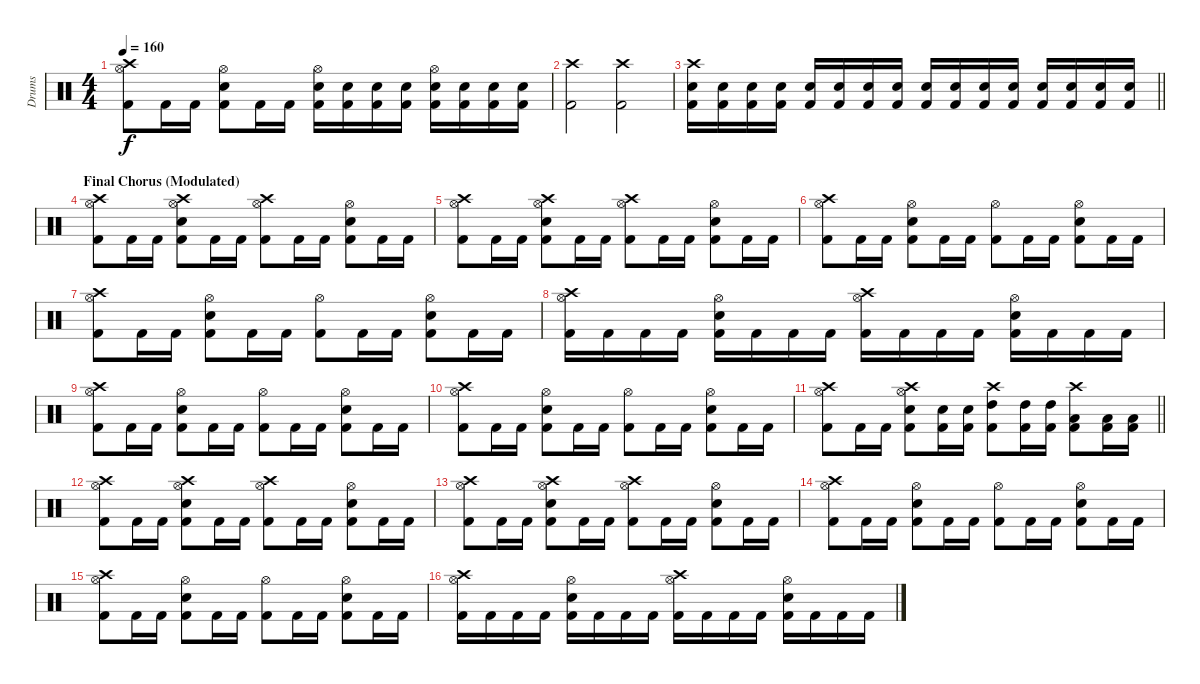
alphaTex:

\track ("Drums" "Drums") {instrument percussion}
\staff {score}
\articulation defaults
\ts (4 4)
\tempo 160
\clef neutral
\ks c
("Crash high (hit)" "Hi-Hat (open)" "Kick (hit) 2").8{dy f} "Kick (hit) 2".16 "Kick (hit) 2".16 ("Hi-Hat (open)" "Snare (hit) 2" "Kick (hit) 2").8 "Kick (hit) 2".16 "Kick (hit) 2".16 ("Hi-Hat (open)" "Snare (hit) 2" "Kick (hit) 2").16 ("Snare (hit) 2" "Kick (hit) 2").16 ("Snare (hit) 2" "Kick (hit) 2").16 ("Snare (hit) 2" "Kick (hit) 2").16 ("Hi-Hat (open)" "Snare (hit) 2" "Kick (hit) 2").16 ("Snare (hit) 2" "Kick (hit) 2").16 ("Snare (hit) 2" "Kick (hit) 2").16 ("Snare (hit) 2" "Kick (hit) 2").16 |
("Crash high (hit)" "Kick (hit) 2").2 ("Crash high (hit)" "Kick (hit) 2").2 |
\barLineRight lightlight
("Crash high (hit)" "Snare (hit) 2" "Kick (hit) 2").16 ("Snare (hit) 2" "Kick (hit) 2").16 ("Snare (hit) 2" "Kick (hit) 2").16 ("Snare (hit) 2" "Kick (hit) 2").16 ("Snare (hit) 2" "Kick (hit) 2").16 ("Snare (hit) 2" "Kick (hit) 2").16 ("Snare (hit) 2" "Kick (hit) 2").16 ("Snare (hit) 2" "Kick (hit) 2").16 ("Snare (hit) 2" "Kick (hit) 2").16 ("Snare (hit) 2" "Kick (hit) 2").16 ("Snare (hit) 2" "Kick (hit) 2").16 ("Snare (hit) 2" "Kick (hit) 2").16 ("Snare (hit) 2" "Kick (hit) 2").16 ("Snare (hit) 2" "Kick (hit) 2").16 ("Snare (hit) 2" "Kick (hit) 2").16 ("Snare (hit) 2" "Kick (hit) 2").16 |
\section ("" "Final Chorus (Modulated)")
("Crash high (hit)" "Hi-Hat (open)" "Kick (hit) 2").8 "Kick (hit) 2".16 "Kick (hit) 2".16 ("Crash high (hit)" "Hi-Hat (open)" "Snare (hit) 2" "Kick (hit) 2").8 "Kick (hit) 2".16 "Kick (hit) 2".16 ("Crash high (hit)" "Hi-Hat (open)" "Kick (hit) 2").8 "Kick (hit) 2".16 "Kick (hit) 2".16 ("Hi-Hat (open)" "Snare (hit) 2" "Kick (hit) 2").8 "Kick (hit) 2".16 "Kick (hit) 2".16 |
("Crash high (hit)" "Hi-Hat (open)" "Kick (hit) 2").8 "Kick (hit) 2".16 "Kick (hit) 2".16 ("Crash high (hit)" "Hi-Hat (open)" "Snare (hit) 2" "Kick (hit) 2").8 "Kick (hit) 2".16 "Kick (hit) 2".16 ("Crash high (hit)" "Hi-Hat (open)" "Kick (hit) 2").8 "Kick (hit) 2".16 "Kick (hit) 2".16 ("Hi-Hat (open)" "Snare (hit) 2" "Kick (hit) 2").8 "Kick (hit) 2".16 "Kick (hit) 2".16 |
("Crash high (hit)" "Hi-Hat (open)" "Kick (hit) 2").8 "Kick (hit) 2".16 "Kick (hit) 2".16 ("Hi-Hat (open)" "Snare (hit) 2" "Kick (hit) 2").8 "Kick (hit) 2".16 "Kick (hit) 2".16 ("Hi-Hat (open)" "Kick (hit) 2").8 "Kick (hit) 2".16 "Kick (hit) 2".16 ("Hi-Hat (open)" "Snare (hit) 2" "Kick (hit) 2").8 "Kick (hit) 2".16 "Kick (hit) 2".16 |
("Crash high (hit)" "Hi-Hat (open)" "Kick (hit) 2").8 "Kick (hit) 2".16 "Kick (hit) 2".16 ("Hi-Hat (open)" "Snare (hit) 2" "Kick (hit) 2").8 "Kick (hit) 2".16 "Kick (hit) 2".16 ("Hi-Hat (open)" "Kick (hit) 2").8 "Kick (hit) 2".16 "Kick (hit) 2".16 ("Hi-Hat (open)" "Snare (hit) 2" "Kick (hit) 2").8 "Kick (hit) 2".16 "Kick (hit) 2".16 |
("Crash high (hit)" "Hi-Hat (open)" "Kick (hit) 2").16 "Kick (hit) 2".16 "Kick (hit) 2".16 "Kick (hit) 2".16 ("Hi-Hat (open)" "Snare (hit) 2" "Kick (hit) 2").16 "Kick (hit) 2".16 "Kick (hit) 2".16 "Kick (hit) 2".16 ("Crash high (hit)" "Hi-Hat (open)" "Kick (hit) 2").16 "Kick (hit) 2".16 "Kick (hit) 2".16 "Kick (hit) 2".16 ("Hi-Hat (open)" "Snare (hit) 2" "Kick (hit) 2").16 "Kick (hit) 2".16 "Kick (hit) 2".16 "Kick (hit) 2".16 |
("Crash high (hit)" "Hi-Hat (open)" "Kick (hit) 2").8 "Kick (hit) 2".16 "Kick (hit) 2".16 ("Hi-Hat (open)" "Snare (hit) 2" "Kick (hit) 2").8 "Kick (hit) 2".16 "Kick (hit) 2".16 ("Hi-Hat (open)" "Kick (hit) 2").8 "Kick (hit) 2".16 "Kick (hit) 2".16 ("Hi-Hat (open)" "Snare (hit) 2" "Kick (hit) 2").8 "Kick (hit) 2".16 "Kick (hit) 2".16 |
("Crash high (hit)" "Hi-Hat (open)" "Kick (hit) 2").8 "Kick (hit) 2".16 "Kick (hit) 2".16 ("Hi-Hat (open)" "Snare (hit) 2" "Kick (hit) 2").8 "Kick (hit) 2".16 "Kick (hit) 2".16 ("Hi-Hat (open)" "Kick (hit) 2").8 "Kick (hit) 2".16 "Kick (hit) 2".16 ("Hi-Hat (open)" "Snare (hit) 2" "Kick (hit) 2").8 "Kick (hit) 2".16 "Kick (hit) 2".16 |
\barLineRight lightlight
("Crash high (hit)" "Hi-Hat (open)" "Kick (hit) 2").8 "Kick (hit) 2".16 "Kick (hit) 2".16 ("Crash high (hit)" "Hi-Hat (open)" "Snare (hit) 2" "Kick (hit) 2").8 ("Snare (hit) 2" "Kick (hit) 2").16 ("Snare (hit) 2" "Kick (hit) 2").16 ("Crash high (hit)" "High Tom (hit)" "Kick (hit) 2").8 ("High Tom (hit)" "Kick (hit) 2").16 ("High Tom (hit)" "Kick (hit) 2").16 ("Crash high (hit)" "Low Tom (hit)" "Kick (hit) 2").8 ("Low Tom (hit)" "Kick (hit) 2").16 ("Low Tom (hit)" "Kick (hit) 2").16 |
("Crash high (hit)" "Hi-Hat (open)" "Kick (hit) 2").8 "Kick (hit) 2".16 "Kick (hit) 2".16 ("Crash high (hit)" "Hi-Hat (open)" "Snare (hit) 2" "Kick (hit) 2").8 "Kick (hit) 2".16 "Kick (hit) 2".16 ("Crash high (hit)" "Hi-Hat (open)" "Kick (hit) 2").8 "Kick (hit) 2".16 "Kick (hit) 2".16 ("Hi-Hat (open)" "Snare (hit) 2" "Kick (hit) 2").8 "Kick (hit) 2".16 "Kick (hit) 2".16 |
("Crash high (hit)" "Hi-Hat (open)" "Kick (hit) 2").8 "Kick (hit) 2".16 "Kick (hit) 2".16 ("Crash high (hit)" "Hi-Hat (open)" "Snare (hit) 2" "Kick (hit) 2").8 "Kick (hit) 2".16 "Kick (hit) 2".16 ("Crash high (hit)" "Hi-Hat (open)" "Kick (hit) 2").8 "Kick (hit) 2".16 "Kick (hit) 2".16 ("Hi-Hat (open)" "Snare (hit) 2" "Kick (hit) 2").8 "Kick (hit) 2".16 "Kick (hit) 2".16 |
("Crash high (hit)" "Hi-Hat (open)" "Kick (hit) 2").8 "Kick (hit) 2".16 "Kick (hit) 2".16 ("Hi-Hat (open)" "Snare (hit) 2" "Kick (hit) 2").8 "Kick (hit) 2".16 "Kick (hit) 2".16 ("Hi-Hat (open)" "Kick (hit) 2").8 "Kick (hit) 2".16 "Kick (hit) 2".16 ("Hi-Hat (open)" "Snare (hit) 2" "Kick (hit) 2").8 "Kick (hit) 2".16 "Kick (hit) 2".16 |
("Crash high (hit)" "Hi-Hat (open)" "Kick (hit) 2").8 "Kick (hit) 2".16 "Kick (hit) 2".16 ("Hi-Hat (open)" "Snare (hit) 2" "Kick (hit) 2").8 "Kick (hit) 2".16 "Kick (hit) 2".16 ("Hi-Hat (open)" "Kick (hit) 2").8 "Kick (hit) 2".16 "Kick (hit) 2".16 ("Hi-Hat (open)" "Snare (hit) 2" "Kick (hit) 2").8 "Kick (hit) 2".16 "Kick (hit) 2".16 |
("Crash high (hit)" "Hi-Hat (open)" "Kick (hit) 2").16 "Kick (hit) 2".16 "Kick (hit) 2".16 "Kick (hit) 2".16 ("Hi-Hat (open)" "Snare (hit) 2" "Kick (hit) 2").16 "Kick (hit) 2".16 "Kick (hit) 2".16 "Kick (hit) 2".16 ("Crash high (hit)" "Hi-Hat (open)" "Kick (hit) 2").16 "Kick (hit) 2".16 "Kick (hit) 2".16 "Kick (hit) 2".16 ("Hi-Hat (open)" "Snare (hit) 2" "Kick (hit) 2").16 "Kick (hit) 2".16 "Kick (hit) 2".16 "Kick (hit) 2".16
